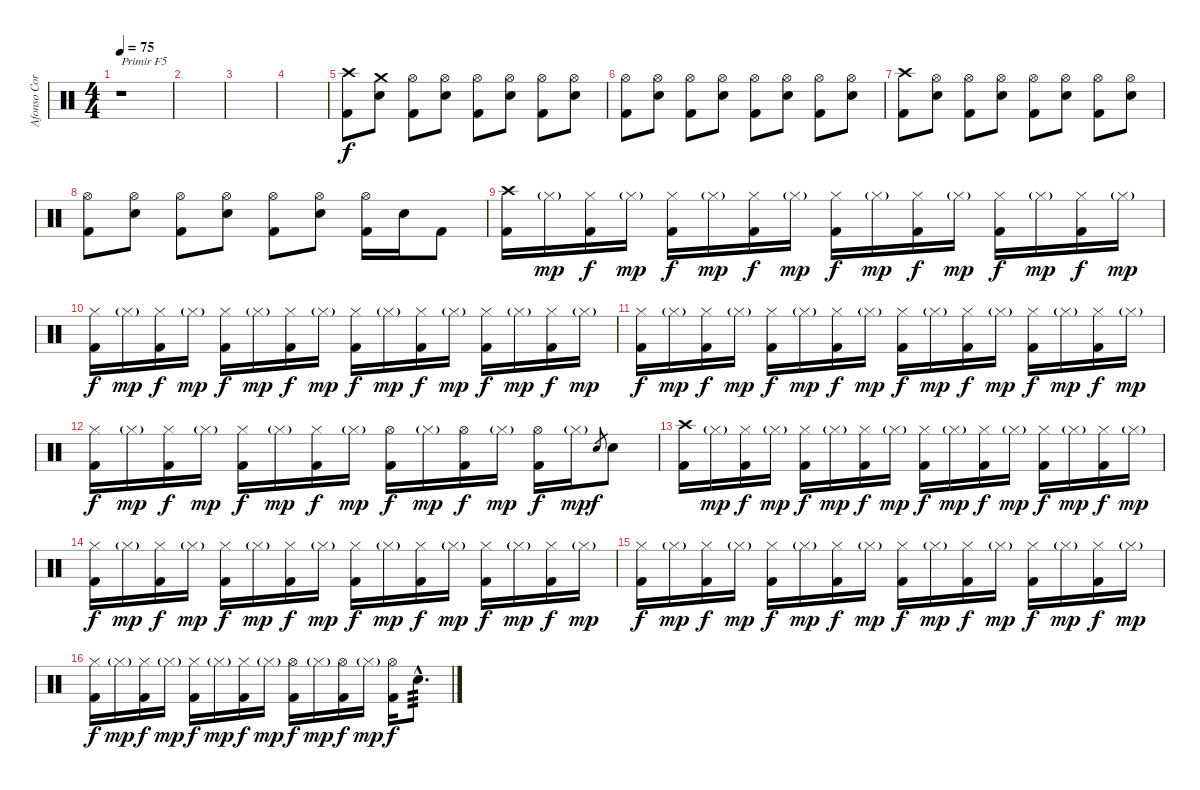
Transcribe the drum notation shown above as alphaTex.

\track ("Afonso Corte-Real" "Afonso Cor") {instrument percussion}
\staff {score}
\articulation defaults
\ts (4 4)
\tempo 75
\clef neutral
\ks c
r.1{txt "Primir F5" dy f} |
|
|
|
("Crash high (hit)" "Kick (hit) 2").8 ("Crash medium (hit)" "Electric Snare (hit)").8 ("Hi-Hat (open)" "Kick (hit) 2").8 ("Hi-Hat (open)" "Electric Snare (hit)").8 ("Hi-Hat (open)" "Kick (hit) 2").8 ("Hi-Hat (open)" "Electric Snare (hit)").8 ("Hi-Hat (open)" "Kick (hit) 2").8 ("Hi-Hat (open)" "Electric Snare (hit)").8 |
("Hi-Hat (open)" "Kick (hit) 2").8 ("Hi-Hat (open)" "Electric Snare (hit)").8 ("Hi-Hat (open)" "Kick (hit) 2").8 ("Hi-Hat (open)" "Electric Snare (hit)").8 ("Hi-Hat (open)" "Kick (hit) 2").8 ("Hi-Hat (open)" "Electric Snare (hit)").8 ("Hi-Hat (open)" "Kick (hit) 2").8 ("Hi-Hat (open)" "Electric Snare (hit)").8 |
("Crash high (hit)" "Kick (hit) 2").8 ("Hi-Hat (open)" "Electric Snare (hit)").8 ("Hi-Hat (open)" "Kick (hit) 2").8 ("Hi-Hat (open)" "Electric Snare (hit)").8 ("Hi-Hat (open)" "Kick (hit) 2").8 ("Hi-Hat (open)" "Electric Snare (hit)").8 ("Hi-Hat (open)" "Kick (hit) 2").8 ("Hi-Hat (open)" "Electric Snare (hit)").8 |
("Hi-Hat (open)" "Kick (hit) 2").8 ("Hi-Hat (open)" "Electric Snare (hit)").8 ("Hi-Hat (open)" "Kick (hit) 2").8 ("Hi-Hat (open)" "Electric Snare (hit)").8 ("Hi-Hat (open)" "Kick (hit) 2").8 ("Hi-Hat (open)" "Electric Snare (hit)").8 ("Hi-Hat (open)" "Kick (hit) 2").16 "Electric Snare (hit)".16 "Kick (hit) 2".8 |
("Crash high (hit)" "Kick (hit) 2").16 "Hi-Hat (closed)"{g}.16{dy mp} ("Hi-Hat (closed)" "Kick (hit) 2").16{dy f} "Hi-Hat (closed)"{g}.16{dy mp} ("Hi-Hat (closed)" "Kick (hit) 2").16{dy f} "Hi-Hat (closed)"{g}.16{dy mp} ("Hi-Hat (closed)" "Kick (hit) 2").16{dy f} "Hi-Hat (closed)"{g}.16{dy mp} ("Hi-Hat (closed)" "Kick (hit) 2").16{dy f} "Hi-Hat (closed)"{g}.16{dy mp} ("Hi-Hat (closed)" "Kick (hit) 2").16{dy f} "Hi-Hat (closed)"{g}.16{dy mp} ("Hi-Hat (closed)" "Kick (hit) 2").16{dy f} "Hi-Hat (closed)"{g}.16{dy mp} ("Hi-Hat (closed)" "Kick (hit) 2").16{dy f} "Hi-Hat (closed)"{g}.16{dy mp} |
("Hi-Hat (closed)" "Kick (hit) 2").16{dy f} "Hi-Hat (closed)"{g}.16{dy mp} ("Hi-Hat (closed)" "Kick (hit) 2").16{dy f} "Hi-Hat (closed)"{g}.16{dy mp} ("Hi-Hat (closed)" "Kick (hit) 2").16{dy f} "Hi-Hat (closed)"{g}.16{dy mp} ("Hi-Hat (closed)" "Kick (hit) 2").16{dy f} "Hi-Hat (closed)"{g}.16{dy mp} ("Hi-Hat (closed)" "Kick (hit) 2").16{dy f} "Hi-Hat (closed)"{g}.16{dy mp} ("Hi-Hat (closed)" "Kick (hit) 2").16{dy f} "Hi-Hat (closed)"{g}.16{dy mp} ("Hi-Hat (closed)" "Kick (hit) 2").16{dy f} "Hi-Hat (closed)"{g}.16{dy mp} ("Hi-Hat (closed)" "Kick (hit) 2").16{dy f} "Hi-Hat (closed)"{g}.16{dy mp} |
("Hi-Hat (closed)" "Kick (hit) 2").16{dy f} "Hi-Hat (closed)"{g}.16{dy mp} ("Hi-Hat (closed)" "Kick (hit) 2").16{dy f} "Hi-Hat (closed)"{g}.16{dy mp} ("Hi-Hat (closed)" "Kick (hit) 2").16{dy f} "Hi-Hat (closed)"{g}.16{dy mp} ("Hi-Hat (closed)" "Kick (hit) 2").16{dy f} "Hi-Hat (closed)"{g}.16{dy mp} ("Hi-Hat (closed)" "Kick (hit) 2").16{dy f} "Hi-Hat (closed)"{g}.16{dy mp} ("Hi-Hat (closed)" "Kick (hit) 2").16{dy f} "Hi-Hat (closed)"{g}.16{dy mp} ("Hi-Hat (closed)" "Kick (hit) 2").16{dy f} "Hi-Hat (closed)"{g}.16{dy mp} ("Hi-Hat (closed)" "Kick (hit) 2").16{dy f} "Hi-Hat (closed)"{g}.16{dy mp} |
("Hi-Hat (closed)" "Kick (hit) 2").16{dy f} "Hi-Hat (closed)"{g}.16{dy mp} ("Hi-Hat (closed)" "Kick (hit) 2").16{dy f} "Hi-Hat (closed)"{g}.16{dy mp} ("Hi-Hat (closed)" "Kick (hit) 2").16{dy f} "Hi-Hat (closed)"{g}.16{dy mp} ("Hi-Hat (closed)" "Kick (hit) 2").16{dy f} "Hi-Hat (closed)"{g}.16{dy mp} ("Hi-Hat (open)" "Kick (hit) 2").16{dy f} "Hi-Hat (closed)"{g}.16{dy mp} ("Hi-Hat (open)" "Kick (hit) 2").16{dy f} "Hi-Hat (closed)"{g}.16{dy mp} ("Hi-Hat (open)" "Kick (hit) 2").16{dy f} "Hi-Hat (closed)"{g}.16{dy mp} "Electric Snare (hit)".8{gr dy f} "Electric Snare (hit)".8 |
("Crash high (hit)" "Kick (hit) 2").16 "Hi-Hat (closed)"{g}.16{dy mp} ("Hi-Hat (closed)" "Kick (hit) 2").16{dy f} "Hi-Hat (closed)"{g}.16{dy mp} ("Hi-Hat (closed)" "Kick (hit) 2").16{dy f} "Hi-Hat (closed)"{g}.16{dy mp} ("Hi-Hat (closed)" "Kick (hit) 2").16{dy f} "Hi-Hat (closed)"{g}.16{dy mp} ("Hi-Hat (closed)" "Kick (hit) 2").16{dy f} "Hi-Hat (closed)"{g}.16{dy mp} ("Hi-Hat (closed)" "Kick (hit) 2").16{dy f} "Hi-Hat (closed)"{g}.16{dy mp} ("Hi-Hat (closed)" "Kick (hit) 2").16{dy f} "Hi-Hat (closed)"{g}.16{dy mp} ("Hi-Hat (closed)" "Kick (hit) 2").16{dy f} "Hi-Hat (closed)"{g}.16{dy mp} |
("Hi-Hat (closed)" "Kick (hit) 2").16{dy f} "Hi-Hat (closed)"{g}.16{dy mp} ("Hi-Hat (closed)" "Kick (hit) 2").16{dy f} "Hi-Hat (closed)"{g}.16{dy mp} ("Hi-Hat (closed)" "Kick (hit) 2").16{dy f} "Hi-Hat (closed)"{g}.16{dy mp} ("Hi-Hat (closed)" "Kick (hit) 2").16{dy f} "Hi-Hat (closed)"{g}.16{dy mp} ("Hi-Hat (closed)" "Kick (hit) 2").16{dy f} "Hi-Hat (closed)"{g}.16{dy mp} ("Hi-Hat (closed)" "Kick (hit) 2").16{dy f} "Hi-Hat (closed)"{g}.16{dy mp} ("Hi-Hat (closed)" "Kick (hit) 2").16{dy f} "Hi-Hat (closed)"{g}.16{dy mp} ("Hi-Hat (closed)" "Kick (hit) 2").16{dy f} "Hi-Hat (closed)"{g}.16{dy mp} |
("Hi-Hat (closed)" "Kick (hit) 2").16{dy f} "Hi-Hat (closed)"{g}.16{dy mp} ("Hi-Hat (closed)" "Kick (hit) 2").16{dy f} "Hi-Hat (closed)"{g}.16{dy mp} ("Hi-Hat (closed)" "Kick (hit) 2").16{dy f} "Hi-Hat (closed)"{g}.16{dy mp} ("Hi-Hat (closed)" "Kick (hit) 2").16{dy f} "Hi-Hat (closed)"{g}.16{dy mp} ("Hi-Hat (closed)" "Kick (hit) 2").16{dy f} "Hi-Hat (closed)"{g}.16{dy mp} ("Hi-Hat (closed)" "Kick (hit) 2").16{dy f} "Hi-Hat (closed)"{g}.16{dy mp} ("Hi-Hat (closed)" "Kick (hit) 2").16{dy f} "Hi-Hat (closed)"{g}.16{dy mp} ("Hi-Hat (closed)" "Kick (hit) 2").16{dy f} "Hi-Hat (closed)"{g}.16{dy mp} |
("Hi-Hat (closed)" "Kick (hit) 2").16{dy f} "Hi-Hat (closed)"{g}.16{dy mp} ("Hi-Hat (closed)" "Kick (hit) 2").16{dy f} "Hi-Hat (closed)"{g}.16{dy mp} ("Hi-Hat (closed)" "Kick (hit) 2").16{dy f} "Hi-Hat (closed)"{g}.16{dy mp} ("Hi-Hat (closed)" "Kick (hit) 2").16{dy f} "Hi-Hat (closed)"{g}.16{dy mp} ("Hi-Hat (open)" "Kick (hit) 2").16{dy f} "Hi-Hat (closed)"{g}.16{dy mp} ("Hi-Hat (open)" "Kick (hit) 2").16{dy f} "Hi-Hat (closed)"{g}.16{dy mp} ("Hi-Hat (open)" "Kick (hit) 2").16{dy f} "Electric Snare (hit)"{hac}.8{d tp 3}
